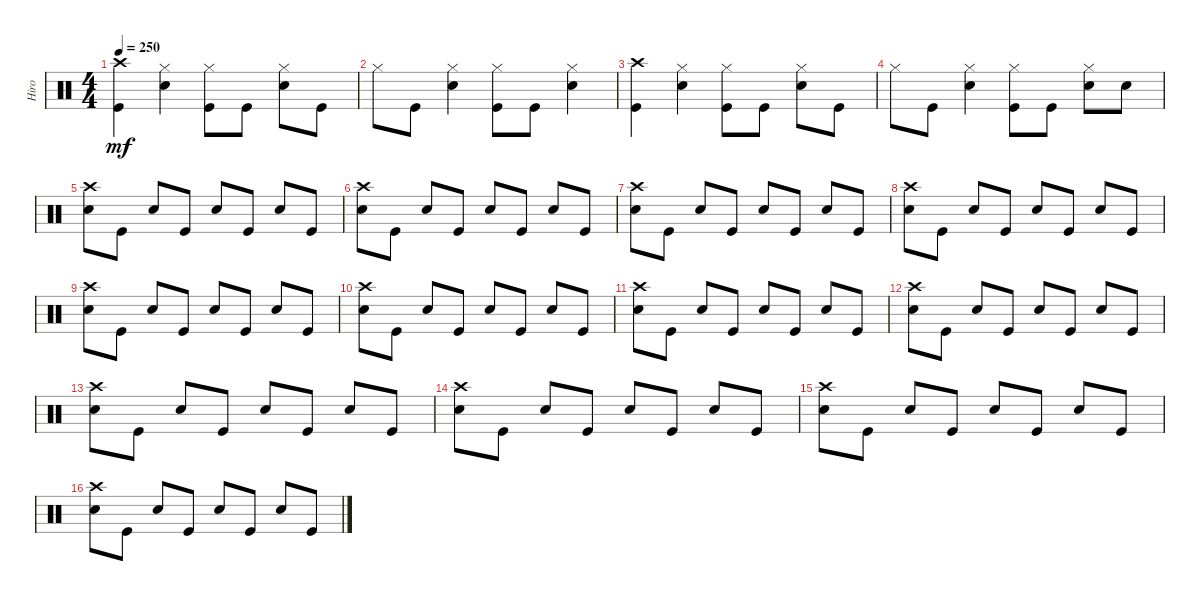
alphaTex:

\track ("Hiro" "Hiro") {instrument percussion}
\staff {score}
\articulation defaults
\ts (4 4)
\tempo 250
\clef neutral
\ks c
("Crash high (hit)" "Kick (hit)").4{dy mf} ("Hi-Hat (closed)" "Electric Snare (hit)").4 ("Hi-Hat (closed)" "Kick (hit)").8 "Kick (hit)".8 ("Hi-Hat (closed)" "Electric Snare (hit)").8 "Kick (hit)".8 |
"Hi-Hat (closed)".8 "Kick (hit)".8 ("Hi-Hat (closed)" "Electric Snare (hit)").4 ("Hi-Hat (closed)" "Kick (hit)").8 "Kick (hit)".8 ("Hi-Hat (closed)" "Electric Snare (hit)").4 |
("Crash high (hit)" "Kick (hit)").4 ("Electric Snare (hit)" "Hi-Hat (closed)").4 ("Kick (hit)" "Hi-Hat (closed)").8 "Kick (hit)".8 ("Electric Snare (hit)" "Hi-Hat (closed)").8 "Kick (hit)".8 |
"Hi-Hat (closed)".8 "Kick (hit)".8 ("Electric Snare (hit)" "Hi-Hat (closed)").4 ("Kick (hit)" "Hi-Hat (closed)").8 "Kick (hit)".8 ("Electric Snare (hit)" "Hi-Hat (closed)").8 "Electric Snare (hit)".8 |
("Electric Snare (hit)" "Crash high (hit)").8 "Kick (hit)".8 "Electric Snare (hit)".8 "Kick (hit)".8 "Electric Snare (hit)".8 "Kick (hit)".8 "Electric Snare (hit)".8 "Kick (hit)".8 |
("Crash high (hit)" "Electric Snare (hit)").8 "Kick (hit)".8 "Electric Snare (hit)".8 "Kick (hit)".8 "Electric Snare (hit)".8 "Kick (hit)".8 "Electric Snare (hit)".8 "Kick (hit)".8 |
("Crash high (hit)" "Electric Snare (hit)").8 "Kick (hit)".8 "Electric Snare (hit)".8 "Kick (hit)".8 "Electric Snare (hit)".8 "Kick (hit)".8 "Electric Snare (hit)".8 "Kick (hit)".8 |
("Electric Snare (hit)" "Crash high (hit)").8 "Kick (hit)".8 "Electric Snare (hit)".8 "Kick (hit)".8 "Electric Snare (hit)".8 "Kick (hit)".8 "Electric Snare (hit)".8 "Kick (hit)".8 |
("Crash high (hit)" "Electric Snare (hit)").8 "Kick (hit)".8 "Electric Snare (hit)".8 "Kick (hit)".8 "Electric Snare (hit)".8 "Kick (hit)".8 "Electric Snare (hit)".8 "Kick (hit)".8 |
("Electric Snare (hit)" "Crash high (hit)").8 "Kick (hit)".8 "Electric Snare (hit)".8 "Kick (hit)".8 "Electric Snare (hit)".8 "Kick (hit)".8 "Electric Snare (hit)".8 "Kick (hit)".8 |
("Crash high (hit)" "Electric Snare (hit)").8 "Kick (hit)".8 "Electric Snare (hit)".8 "Kick (hit)".8 "Electric Snare (hit)".8 "Kick (hit)".8 "Electric Snare (hit)".8 "Kick (hit)".8 |
("Electric Snare (hit)" "Crash high (hit)").8 "Kick (hit)".8 "Electric Snare (hit)".8 "Kick (hit)".8 "Electric Snare (hit)".8 "Kick (hit)".8 "Electric Snare (hit)".8 "Kick (hit)".8 |
("Crash high (hit)" "Electric Snare (hit)").8 "Kick (hit)".8 "Electric Snare (hit)".8 "Kick (hit)".8 "Electric Snare (hit)".8 "Kick (hit)".8 "Electric Snare (hit)".8 "Kick (hit)".8 |
("Electric Snare (hit)" "Crash high (hit)").8 "Kick (hit)".8 "Electric Snare (hit)".8 "Kick (hit)".8 "Electric Snare (hit)".8 "Kick (hit)".8 "Electric Snare (hit)".8 "Kick (hit)".8 |
("Electric Snare (hit)" "Crash high (hit)").8 "Kick (hit)".8 "Electric Snare (hit)".8 "Kick (hit)".8 "Electric Snare (hit)".8 "Kick (hit)".8 "Electric Snare (hit)".8 "Kick (hit)".8 |
("Crash high (hit)" "Electric Snare (hit)").8 "Kick (hit)".8 "Electric Snare (hit)".8 "Kick (hit)".8 "Electric Snare (hit)".8 "Kick (hit)".8 "Electric Snare (hit)".8 "Kick (hit)".8
